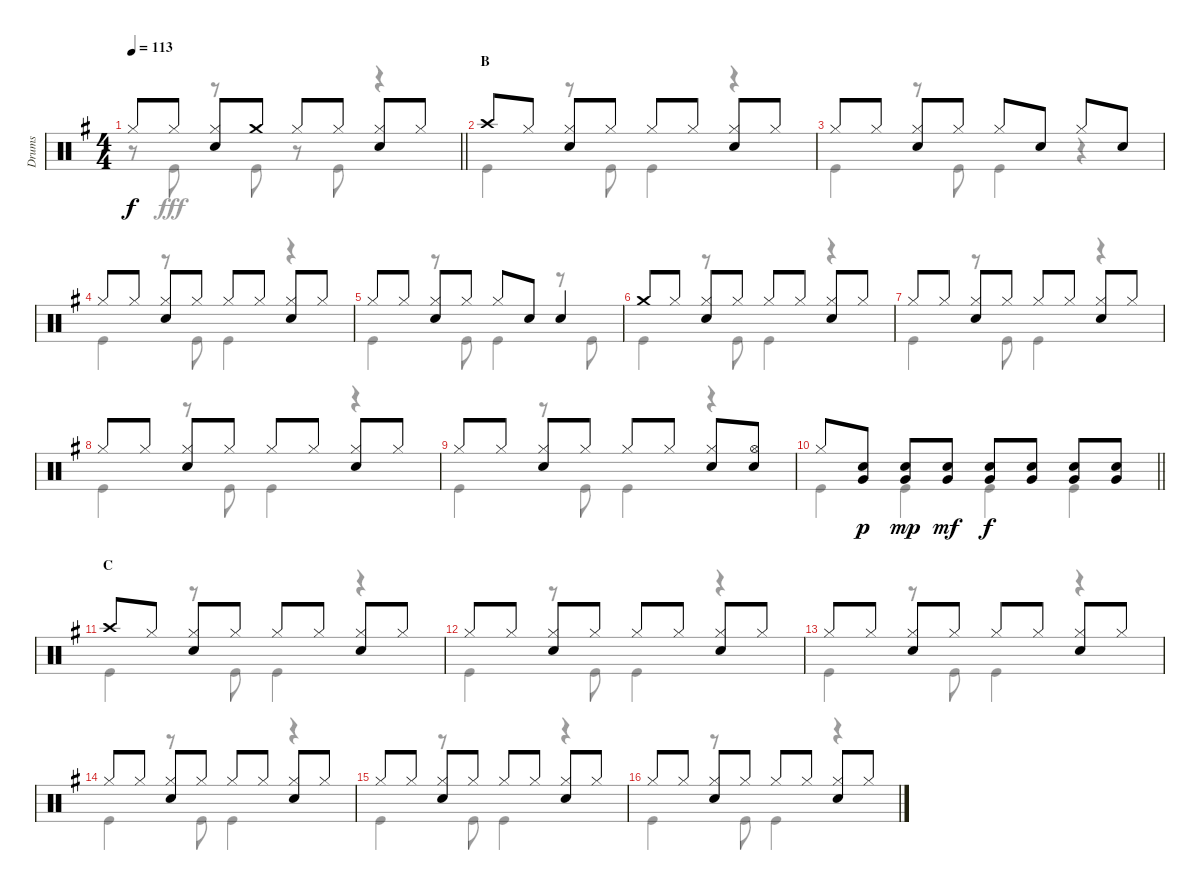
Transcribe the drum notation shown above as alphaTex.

\track ("Drums" "Drums") {instrument percussion}
\staff {score}
\articulation defaults
\voice
\ts (4 4)
\tempo 113
\clef neutral
\barLineRight lightlight
\ks g "Hi-Hat (closed)".8{dy f} "Hi-Hat (closed)".8
("Hi-Hat (closed)" "Snare (hit) 2").8 "Crash medium (hit)".8 "Hi-Hat (closed)".8 "Hi-Hat (closed)".8 ("Hi-Hat (closed)" "Snare (hit) 2").8 "Hi-Hat (closed)".8 |
\section ("" "B")
"Crash high (hit)".8 "Hi-Hat (closed)".8 ("Hi-Hat (closed)" "Snare (hit) 2").8 "Hi-Hat (closed)".8 "Hi-Hat (closed)".8 "Hi-Hat (closed)".8 ("Hi-Hat (closed)" "Snare (hit) 2").8 "Hi-Hat (closed)".8 |
"Hi-Hat (closed)".8 "Hi-Hat (closed)".8 ("Hi-Hat (closed)" "Snare (hit) 2").8 "Hi-Hat (closed)".8 "Hi-Hat (closed)".8 "Snare (hit) 2".8 "Hi-Hat (closed)".8 "Snare (hit) 2".8 |
"Hi-Hat (closed)".8 "Hi-Hat (closed)".8 ("Hi-Hat (closed)" "Snare (hit) 2").8 "Hi-Hat (closed)".8 "Hi-Hat (closed)".8 "Hi-Hat (closed)".8 ("Hi-Hat (closed)" "Snare (hit) 2").8 "Hi-Hat (closed)".8 |
"Hi-Hat (closed)".8 "Hi-Hat (closed)".8 ("Hi-Hat (closed)" "Snare (hit) 2").8 "Hi-Hat (closed)".8 "Hi-Hat (closed)".8 "Snare (hit) 2".8 "Snare (hit) 2".4 |
"Crash medium (hit)".8 "Hi-Hat (closed)".8 ("Hi-Hat (closed)" "Snare (hit) 2").8 "Hi-Hat (closed)".8 "Hi-Hat (closed)".8 "Hi-Hat (closed)".8 ("Hi-Hat (closed)" "Snare (hit) 2").8 "Hi-Hat (closed)".8 |
"Hi-Hat (closed)".8 "Hi-Hat (closed)".8 ("Hi-Hat (closed)" "Snare (hit) 2").8 "Hi-Hat (closed)".8 "Hi-Hat (closed)".8 "Hi-Hat (closed)".8 ("Hi-Hat (closed)" "Snare (hit) 2").8 "Hi-Hat (closed)".8 |
"Hi-Hat (closed)".8 "Hi-Hat (closed)".8 ("Hi-Hat (closed)" "Snare (hit) 2").8 "Hi-Hat (closed)".8 "Hi-Hat (closed)".8 "Hi-Hat (closed)".8 ("Hi-Hat (closed)" "Snare (hit) 2").8 "Hi-Hat (closed)".8 |
"Hi-Hat (closed)".8 "Hi-Hat (closed)".8 ("Hi-Hat (closed)" "Snare (hit) 2").8 "Hi-Hat (closed)".8 "Hi-Hat (closed)".8 "Hi-Hat (closed)".8 ("Hi-Hat (closed)" "Snare (hit) 2").8 ("Hi-Hat (open)" "Snare (hit) 2").8 |
\barLineRight lightlight "Hi-Hat (closed)".8
("Snare (hit) 2" "Very Low Tom (hit)").8{dy p} ("Snare (hit) 2" "Very Low Tom (hit)").8{dy mp} ("Snare (hit) 2" "Very Low Tom (hit)").8{dy mf} ("Snare (hit) 2" "Very Low Tom (hit)").8{dy f} ("Snare (hit) 2" "Very Low Tom (hit)").8 ("Snare (hit) 2" "Very Low Tom (hit)").8 ("Snare (hit) 2" "Very Low Tom (hit)").8 |
\section ("" "C")
"Crash high (hit)".8 "Hi-Hat (closed)".8 ("Hi-Hat (closed)" "Snare (hit) 2").8 "Hi-Hat (closed)".8 "Hi-Hat (closed)".8 "Hi-Hat (closed)".8 ("Hi-Hat (closed)" "Snare (hit) 2").8 "Hi-Hat (closed)".8 |
"Hi-Hat (closed)".8 "Hi-Hat (closed)".8 ("Hi-Hat (closed)" "Snare (hit) 2").8 "Hi-Hat (closed)".8 "Hi-Hat (closed)".8 "Hi-Hat (closed)".8 ("Hi-Hat (closed)" "Snare (hit) 2").8 "Hi-Hat (closed)".8 |
"Hi-Hat (closed)".8 "Hi-Hat (closed)".8 ("Hi-Hat (closed)" "Snare (hit) 2").8 "Hi-Hat (closed)".8 "Hi-Hat (closed)".8 "Hi-Hat (closed)".8 ("Hi-Hat (closed)" "Snare (hit) 2").8 "Hi-Hat (closed)".8 |
"Hi-Hat (closed)".8 "Hi-Hat (closed)".8 ("Hi-Hat (closed)" "Snare (hit) 2").8 "Hi-Hat (closed)".8 "Hi-Hat (closed)".8 "Hi-Hat (closed)".8 ("Hi-Hat (closed)" "Snare (hit) 2").8 "Hi-Hat (closed)".8 |
"Hi-Hat (closed)".8 "Hi-Hat (closed)".8 ("Hi-Hat (closed)" "Snare (hit) 2").8 "Hi-Hat (closed)".8 "Hi-Hat (closed)".8 "Hi-Hat (closed)".8 ("Hi-Hat (closed)" "Snare (hit) 2").8 "Hi-Hat (closed)".8 |
"Hi-Hat (closed)".8 "Hi-Hat (closed)".8 ("Hi-Hat (closed)" "Snare (hit) 2").8 "Hi-Hat (closed)".8 "Hi-Hat (closed)".8 "Hi-Hat (closed)".8 ("Hi-Hat (closed)" "Snare (hit) 2").8 "Hi-Hat (closed)".8
\voice
\clef neutral
\ottava regular
\simile none
\barLineRight lightlight
\ks g
r.8{dy fff} "Kick (hit)".8 r.8 "Kick (hit)".8 r.8 "Kick (hit)".8 r.4 |
"Kick (hit)".4 r.8 "Kick (hit)".8 "Kick (hit)".4 r.4 |
"Kick (hit)".4 r.8 "Kick (hit)".8 "Kick (hit)".4 r.4 |
"Kick (hit)".4 r.8 "Kick (hit)".8 "Kick (hit)".4 r.4 |
"Kick (hit)".4 r.8 "Kick (hit)".8 "Kick (hit)".4 r.8 "Kick (hit)".8 |
"Kick (hit)".4 r.8 "Kick (hit)".8 "Kick (hit)".4 r.4 |
"Kick (hit)".4 r.8 "Kick (hit)".8 "Kick (hit)".4 r.4 |
"Kick (hit)".4 r.8 "Kick (hit)".8 "Kick (hit)".4 r.4 |
"Kick (hit)".4 r.8 "Kick (hit)".8 "Kick (hit)".4 r.4 |
\barLineRight lightlight "Kick (hit)".4 "Kick (hit)".4 "Kick (hit)".4 "Kick (hit)".4
|
"Kick (hit)".4 r.8 "Kick (hit)".8 "Kick (hit)".4 r.4 |
"Kick (hit)".4 r.8 "Kick (hit)".8 "Kick (hit)".4 r.4 |
"Kick (hit)".4 r.8 "Kick (hit)".8 "Kick (hit)".4 r.4 |
"Kick (hit)".4 r.8 "Kick (hit)".8 "Kick (hit)".4 r.4 |
"Kick (hit)".4 r.8 "Kick (hit)".8 "Kick (hit)".4 r.4 |
"Kick (hit)".4 r.8 "Kick (hit)".8 "Kick (hit)".4 r.4
